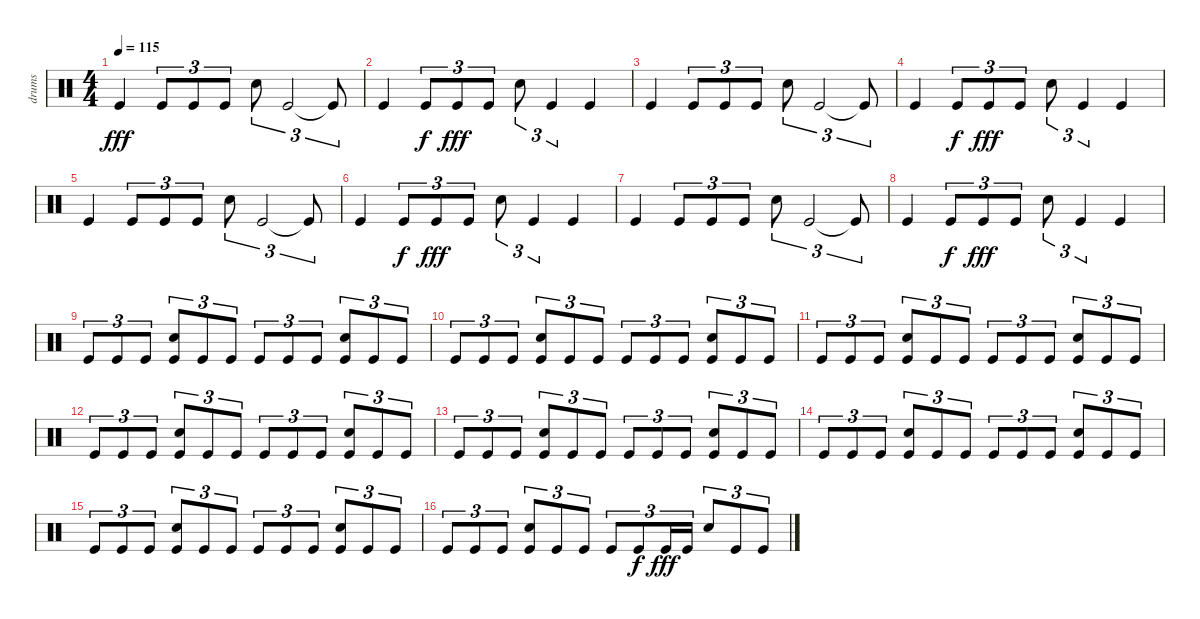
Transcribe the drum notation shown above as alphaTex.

\track ("drums" "drums") {instrument percussion}
\staff {score}
\articulation defaults
\ts (4 4)
\tempo 115
\clef neutral
\ks c "Kick (hit)".4{dy fff} "Kick (hit)".8{tu (3 2)} "Kick (hit)".8{tu (3 2)} "Kick (hit)".8{tu (3 2)} "Electric Snare (hit)".8{tu (3 2)} "Kick (hit)".2{tu (3 2)} "Kick (hit)"{t}.8{tu (3 2)}
|
"Kick (hit)".4 "Kick (hit)".8{tu (3 2) dy f} "Kick (hit)".8{tu (3 2) dy fff} "Kick (hit)".8{tu (3 2)} "Electric Snare (hit)".8{tu (3 2)} "Kick (hit)".4{tu (3 2)} "Kick (hit)".4 |
"Kick (hit)".4 "Kick (hit)".8{tu (3 2)} "Kick (hit)".8{tu (3 2)} "Kick (hit)".8{tu (3 2)} "Electric Snare (hit)".8{tu (3 2)} "Kick (hit)".2{tu (3 2)} "Kick (hit)"{t}.8{tu (3 2)} |
"Kick (hit)".4 "Kick (hit)".8{tu (3 2) dy f} "Kick (hit)".8{tu (3 2) dy fff} "Kick (hit)".8{tu (3 2)} "Electric Snare (hit)".8{tu (3 2)} "Kick (hit)".4{tu (3 2)} "Kick (hit)".4 |
"Kick (hit)".4 "Kick (hit)".8{tu (3 2)} "Kick (hit)".8{tu (3 2)} "Kick (hit)".8{tu (3 2)} "Electric Snare (hit)".8{tu (3 2)} "Kick (hit)".2{tu (3 2)} "Kick (hit)"{t}.8{tu (3 2)} |
"Kick (hit)".4 "Kick (hit)".8{tu (3 2) dy f} "Kick (hit)".8{tu (3 2) dy fff} "Kick (hit)".8{tu (3 2)} "Electric Snare (hit)".8{tu (3 2)} "Kick (hit)".4{tu (3 2)} "Kick (hit)".4 |
"Kick (hit)".4 "Kick (hit)".8{tu (3 2)} "Kick (hit)".8{tu (3 2)} "Kick (hit)".8{tu (3 2)} "Electric Snare (hit)".8{tu (3 2)} "Kick (hit)".2{tu (3 2)} "Kick (hit)"{t}.8{tu (3 2)} |
"Kick (hit)".4 "Kick (hit)".8{tu (3 2) dy f} "Kick (hit)".8{tu (3 2) dy fff} "Kick (hit)".8{tu (3 2)} "Electric Snare (hit)".8{tu (3 2)} "Kick (hit)".4{tu (3 2)} "Kick (hit)".4 |
"Kick (hit)".8{tu (3 2)} "Kick (hit)".8{tu (3 2)} "Kick (hit)".8{tu (3 2)} ("Electric Snare (hit)" "Kick (hit)").8{tu (3 2)} "Kick (hit)".8{tu (3 2)} "Kick (hit)".8{tu (3 2)} "Kick (hit)".8{tu (3 2)} "Kick (hit)".8{tu (3 2)} "Kick (hit)".8{tu (3 2)} ("Electric Snare (hit)" "Kick (hit)").8{tu (3 2)} "Kick (hit)".8{tu (3 2)} "Kick (hit)".8{tu (3 2)} |
"Kick (hit)".8{tu (3 2)} "Kick (hit)".8{tu (3 2)} "Kick (hit)".8{tu (3 2)} ("Electric Snare (hit)" "Kick (hit)").8{tu (3 2)} "Kick (hit)".8{tu (3 2)} "Kick (hit)".8{tu (3 2)} "Kick (hit)".8{tu (3 2)} "Kick (hit)".8{tu (3 2)} "Kick (hit)".8{tu (3 2)} ("Electric Snare (hit)" "Kick (hit)").8{tu (3 2)} "Kick (hit)".8{tu (3 2)} "Kick (hit)".8{tu (3 2)} |
"Kick (hit)".8{tu (3 2)} "Kick (hit)".8{tu (3 2)} "Kick (hit)".8{tu (3 2)} ("Electric Snare (hit)" "Kick (hit)").8{tu (3 2)} "Kick (hit)".8{tu (3 2)} "Kick (hit)".8{tu (3 2)} "Kick (hit)".8{tu (3 2)} "Kick (hit)".8{tu (3 2)} "Kick (hit)".8{tu (3 2)} ("Electric Snare (hit)" "Kick (hit)").8{tu (3 2)} "Kick (hit)".8{tu (3 2)} "Kick (hit)".8{tu (3 2)} |
"Kick (hit)".8{tu (3 2)} "Kick (hit)".8{tu (3 2)} "Kick (hit)".8{tu (3 2)} ("Electric Snare (hit)" "Kick (hit)").8{tu (3 2)} "Kick (hit)".8{tu (3 2)} "Kick (hit)".8{tu (3 2)} "Kick (hit)".8{tu (3 2)} "Kick (hit)".8{tu (3 2)} "Kick (hit)".8{tu (3 2)} ("Electric Snare (hit)" "Kick (hit)").8{tu (3 2)} "Kick (hit)".8{tu (3 2)} "Kick (hit)".8{tu (3 2)} |
"Kick (hit)".8{tu (3 2)} "Kick (hit)".8{tu (3 2)} "Kick (hit)".8{tu (3 2)} ("Electric Snare (hit)" "Kick (hit)").8{tu (3 2)} "Kick (hit)".8{tu (3 2)} "Kick (hit)".8{tu (3 2)} "Kick (hit)".8{tu (3 2)} "Kick (hit)".8{tu (3 2)} "Kick (hit)".8{tu (3 2)} ("Electric Snare (hit)" "Kick (hit)").8{tu (3 2)} "Kick (hit)".8{tu (3 2)} "Kick (hit)".8{tu (3 2)} |
"Kick (hit)".8{tu (3 2)} "Kick (hit)".8{tu (3 2)} "Kick (hit)".8{tu (3 2)} ("Electric Snare (hit)" "Kick (hit)").8{tu (3 2)} "Kick (hit)".8{tu (3 2)} "Kick (hit)".8{tu (3 2)} "Kick (hit)".8{tu (3 2)} "Kick (hit)".8{tu (3 2)} "Kick (hit)".8{tu (3 2)} ("Electric Snare (hit)" "Kick (hit)").8{tu (3 2)} "Kick (hit)".8{tu (3 2)} "Kick (hit)".8{tu (3 2)} |
"Kick (hit)".8{tu (3 2)} "Kick (hit)".8{tu (3 2)} "Kick (hit)".8{tu (3 2)} ("Electric Snare (hit)" "Kick (hit)").8{tu (3 2)} "Kick (hit)".8{tu (3 2)} "Kick (hit)".8{tu (3 2)} "Kick (hit)".8{tu (3 2)} "Kick (hit)".8{tu (3 2)} "Kick (hit)".8{tu (3 2)} ("Electric Snare (hit)" "Kick (hit)").8{tu (3 2)} "Kick (hit)".8{tu (3 2)} "Kick (hit)".8{tu (3 2)} |
"Kick (hit)".8{tu (3 2)} "Kick (hit)".8{tu (3 2)} "Kick (hit)".8{tu (3 2)} ("Electric Snare (hit)" "Kick (hit)").8{tu (3 2)} "Kick (hit)".8{tu (3 2)} "Kick (hit)".8{tu (3 2)} "Kick (hit)".8{tu (3 2)} "Kick (hit)".8{tu (3 2) dy f} "Kick (hit)".16{tu (3 2) dy fff} "Kick (hit)".16{tu (3 2)} "Electric Snare (hit)".8{tu (3 2)} "Kick (hit)".8{tu (3 2)} "Kick (hit)".8{tu (3 2)}
